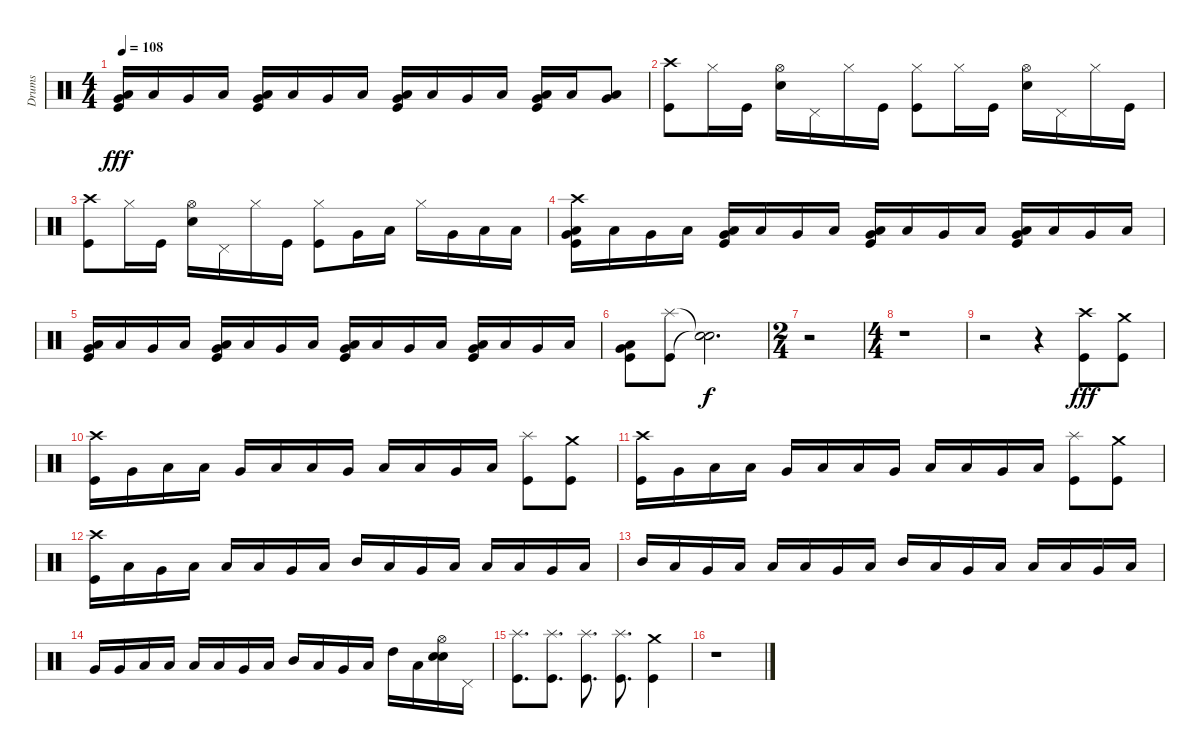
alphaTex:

\track ("Drums" "Drums") {instrument percussion}
\staff {score}
\articulation defaults
\ts (4 4)
\tempo 108
\clef neutral
\ks c
("Very Low Tom (hit)" "Low Floor Tom (hit)" "Kick (hit)").16{dy fff} "Low Tom (hit)".16 "Very Low Tom (hit)".16 "Low Floor Tom (hit)".16 ("Very Low Tom (hit)" "Low Floor Tom (hit)" "Kick (hit)").16 "Low Tom (hit)".16 "Very Low Tom (hit)".16 "Low Floor Tom (hit)".16 ("Very Low Tom (hit)" "Low Floor Tom (hit)" "Kick (hit)").16 "Low Tom (hit)".16 "Very Low Tom (hit)".16 "Low Floor Tom (hit)".16 ("Very Low Tom (hit)" "Low Floor Tom (hit)" "Kick (hit)").16 "Low Tom (hit)".16 ("Very Low Tom (hit)" "Low Floor Tom (hit)").8 |
("Crash high (hit)" "Kick (hit)").8 "Hi-Hat (closed)".16 "Kick (hit)".16 ("Hi-Hat (open)" "Snare (hit) 2").16 "Pedal Hi-Hat (hit)".16 "Hi-Hat (closed)".16 "Kick (hit)".16 ("Hi-Hat (closed)" "Kick (hit)").8 "Hi-Hat (closed)".16 "Kick (hit)".16 ("Hi-Hat (open)" "Snare (hit) 2").16 "Pedal Hi-Hat (hit)".16 "Hi-Hat (closed)".16 "Kick (hit)".16 |
("Crash high (hit)" "Kick (hit)").8 "Hi-Hat (closed)".16 "Kick (hit)".16 ("Hi-Hat (open)" "Snare (hit) 2").16 "Pedal Hi-Hat (hit)".16 "Hi-Hat (closed)".16 "Kick (hit)".16 ("Hi-Hat (closed)" "Kick (hit)").8 "Very Low Tom (hit)".16 "Low Floor Tom (hit)".16 "Hi-Hat (closed)".16 "Very Low Tom (hit)".16 "Low Floor Tom (hit)".16 "Low Floor Tom (hit)".16 |
("Crash high (hit)" "Very Low Tom (hit)" "Low Floor Tom (hit)" "Kick (hit)").16 "Low Tom (hit)".16 "Very Low Tom (hit)".16 "Low Floor Tom (hit)".16 ("Very Low Tom (hit)" "Low Floor Tom (hit)" "Kick (hit)").16 "Low Tom (hit)".16 "Very Low Tom (hit)".16 "Low Floor Tom (hit)".16 ("Very Low Tom (hit)" "Low Floor Tom (hit)" "Kick (hit)").16 "Low Tom (hit)".16 "Very Low Tom (hit)".16 "Low Floor Tom (hit)".16 ("Very Low Tom (hit)" "Low Floor Tom (hit)" "Kick (hit)").16 "Low Tom (hit)".16 "Very Low Tom (hit)".16 "Low Floor Tom (hit)".16 |
("Very Low Tom (hit)" "Low Floor Tom (hit)" "Kick (hit)").16 "Low Tom (hit)".16 "Very Low Tom (hit)".16 "Low Floor Tom (hit)".16 ("Very Low Tom (hit)" "Low Floor Tom (hit)" "Kick (hit)").16 "Low Tom (hit)".16 "Very Low Tom (hit)".16 "Low Floor Tom (hit)".16 ("Very Low Tom (hit)" "Low Floor Tom (hit)" "Kick (hit)").16 "Low Tom (hit)".16 "Very Low Tom (hit)".16 "Low Floor Tom (hit)".16 ("Very Low Tom (hit)" "Low Floor Tom (hit)" "Kick (hit)").16 "Low Tom (hit)".16 "Very Low Tom (hit)".16 "Low Floor Tom (hit)".16 |
("Very Low Tom (hit)" "Low Floor Tom (hit)" "Kick (hit)").8 ("Splash (hit)" "Kick (hit)").8 ("Snare (hit)"{t} "Snare (hit)"{t}).2{d dy f} |
\ts (2 4)
r.2 |
\ts (4 4)
r.1 |
r.2 r.4 ("Crash high (hit)" "Kick (hit)").8{dy fff} ("Crash medium (hit)" "Kick (hit)").8 |
("Crash high (hit)" "Kick (hit)").16 "Very Low Tom (hit)".16 "Low Floor Tom (hit)".16 "Low Tom (hit)".16 "Very Low Tom (hit)".16 "Low Floor Tom (hit)".16 "Low Tom (hit)".16 "Very Low Tom (hit)".16 "Low Floor Tom (hit)".16 "Low Tom (hit)".16 "Very Low Tom (hit)".16 "Low Floor Tom (hit)".16 ("Splash (hit)" "Kick (hit)").8 ("Crash medium (hit)" "Kick (hit)").8 |
("Crash high (hit)" "Kick (hit)").16 "Very Low Tom (hit)".16 "Low Floor Tom (hit)".16 "Low Tom (hit)".16 "Very Low Tom (hit)".16 "Low Floor Tom (hit)".16 "Low Tom (hit)".16 "Very Low Tom (hit)".16 "Low Floor Tom (hit)".16 "Low Tom (hit)".16 "Very Low Tom (hit)".16 "Low Floor Tom (hit)".16 ("Splash (hit)" "Kick (hit)").8 ("Crash medium (hit)" "Kick (hit)").8 |
("Crash high (hit)" "Kick (hit)").16 "Low Floor Tom (hit)".16 "Very Low Tom (hit)".16 "Low Floor Tom (hit)".16 "Low Tom (hit)".16 "Low Floor Tom (hit)".16 "Very Low Tom (hit)".16 "Low Floor Tom (hit)".16 "Mid Tom (hit)".16 "Low Floor Tom (hit)".16 "Very Low Tom (hit)".16 "Low Floor Tom (hit)".16 "Low Tom (hit)".16 "Low Floor Tom (hit)".16 "Very Low Tom (hit)".16 "Low Floor Tom (hit)".16 |
"Mid Tom (hit)".16 "Low Floor Tom (hit)".16 "Very Low Tom (hit)".16 "Low Floor Tom (hit)".16 "Low Tom (hit)".16 "Low Floor Tom (hit)".16 "Very Low Tom (hit)".16 "Low Floor Tom (hit)".16 "Mid Tom (hit)".16 "Low Floor Tom (hit)".16 "Very Low Tom (hit)".16 "Low Floor Tom (hit)".16 "Low Tom (hit)".16 "Low Floor Tom (hit)".16 "Very Low Tom (hit)".16 "Low Floor Tom (hit)".16 |
"Very Low Tom (hit)".16 "Very Low Tom (hit)".16 "Low Floor Tom (hit)".16 "Low Floor Tom (hit)".16 "Low Tom (hit)".16 "Low Tom (hit)".16 "Very Low Tom (hit)".16 "Low Floor Tom (hit)".16 "Mid Tom (hit)".16 "Low Tom (hit)".16 "Very Low Tom (hit)".16 "Low Floor Tom (hit)".16 "High Tom (hit)".16 "Low Tom (hit)".16 ("Hi-Hat (open)" "Electric Snare (hit)" "Snare (hit) 2").16 "Pedal Hi-Hat (hit)".16 |
("Splash (hit)" "Kick (hit)").8{d} ("Splash (hit)" "Kick (hit)").8{d} ("Splash (hit)" "Kick (hit)").8{d} ("Splash (hit)" "Kick (hit)").8{d} ("Crash medium (hit)" "Kick (hit)").4 |
r.1
